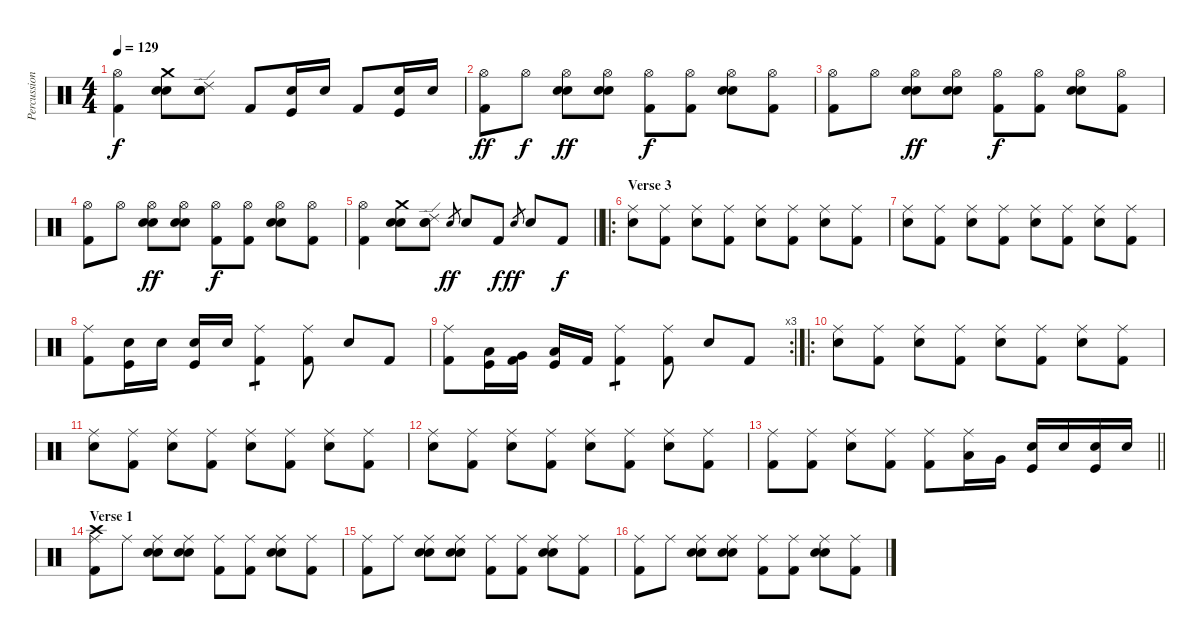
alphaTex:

\track ("Percussion" "Percussion") {instrument percussion}
\staff {score}
\articulation defaults
\ts (4 4)
\tempo 129
\clef neutral
\ks c
("Kick (hit) 2" "Hi-Hat (open)").4{dy f} ("Hand Clap (hit)" "Electric Snare (hit)" "Crash medium (hit)").8 ("Electric Snare (hit)" "Hand Clap (hit)" "Ride (edge) 2").8 "Kick (hit) 2".8 ("Electric Snare (hit)" "Kick (hit)").16 "Electric Snare (hit)".16 "Kick (hit) 2".8 ("Electric Snare (hit)" "Kick (hit)").16 "Electric Snare (hit)".16 |
("Kick (hit) 2" "Hi-Hat (open)").8{dy ff} "Hi-Hat (open)".8{dy f} ("Hand Clap (hit)" "Hi-Hat (open)" "Electric Snare (hit)").8{dy ff} ("Electric Snare (hit)" "Hi-Hat (open)" "Hand Clap (hit)").8 ("Kick (hit) 2" "Hi-Hat (open)").8{dy f} ("Kick (hit) 2" "Hi-Hat (open)").8 ("Electric Snare (hit)" "Hi-Hat (open)" "Hand Clap (hit)").8 ("Kick (hit) 2" "Hi-Hat (open)").8 |
("Kick (hit) 2" "Hi-Hat (open)").8 "Hi-Hat (open)".8 ("Hand Clap (hit)" "Hi-Hat (open)" "Electric Snare (hit)").8{dy ff} ("Electric Snare (hit)" "Hi-Hat (open)" "Hand Clap (hit)").8 ("Kick (hit) 2" "Hi-Hat (open)").8{dy f} ("Kick (hit) 2" "Hi-Hat (open)").8 ("Electric Snare (hit)" "Hi-Hat (open)" "Hand Clap (hit)").8 ("Kick (hit) 2" "Hi-Hat (open)").8 |
("Kick (hit) 2" "Hi-Hat (open)").8 "Hi-Hat (open)".8 ("Hand Clap (hit)" "Hi-Hat (open)" "Electric Snare (hit)").8{dy ff} ("Electric Snare (hit)" "Hi-Hat (open)" "Hand Clap (hit)").8 ("Kick (hit) 2" "Hi-Hat (open)").8{dy f} ("Kick (hit) 2" "Hi-Hat (open)").8 ("Electric Snare (hit)" "Hi-Hat (open)" "Hand Clap (hit)").8 ("Kick (hit) 2" "Hi-Hat (open)").8 |
\barLineRight lightlight
("Kick (hit) 2" "Hi-Hat (open)").4 ("Hand Clap (hit)" "Electric Snare (hit)" "Crash medium (hit)").8 ("Electric Snare (hit)" "Hand Clap (hit)" "Ride (edge) 2").8 "Electric Snare (hit)".8{gr dy ff} "Electric Snare (hit)".8 "Kick (hit) 2".8{dy f} "Electric Snare (hit)".8{gr dy ff} "Electric Snare (hit)".8 "Kick (hit) 2".8{dy f} |
\ro
\section ("" "Verse 3")
("Electric Snare (hit)" "Ride (middle)").8 ("Kick (hit) 2" "Ride (middle)").8 ("Electric Snare (hit)" "Ride (middle)").8 ("Kick (hit) 2" "Ride (middle)").8 ("Electric Snare (hit)" "Ride (middle)").8 ("Kick (hit) 2" "Ride (middle)").8 ("Electric Snare (hit)" "Ride (middle)").8 ("Kick (hit) 2" "Ride (middle)").8 |
("Electric Snare (hit)" "Ride (middle)").8 ("Kick (hit) 2" "Ride (middle)").8 ("Electric Snare (hit)" "Ride (middle)").8 ("Kick (hit) 2" "Ride (middle)").8 ("Electric Snare (hit)" "Ride (middle)").8 ("Kick (hit) 2" "Ride (middle)").8 ("Electric Snare (hit)" "Ride (middle)").8 ("Kick (hit) 2" "Ride (middle)").8 |
("Kick (hit) 2" "Ride (middle)").8 ("Kick (hit)" "Electric Snare (hit)").16 "Electric Snare (hit)".16 ("Kick (hit)" "Electric Snare (hit)").16 "Electric Snare (hit)".16 ("Kick (hit) 2" "Ride (middle)").4{tp 1} ("Kick (hit) 2" "Ride (middle)").8 "Electric Snare (hit)".8 "Kick (hit) 2".8 |
\rc 3
("Kick (hit) 2" "Ride (middle)").8 ("Kick (hit)" "Low Tom (hit)").16 ("Kick (hit) 2" "Very Low Tom (hit)").16 ("Kick (hit)" "Low Floor Tom (hit)").16 "Kick (hit) 2".16 ("Kick (hit) 2" "Ride (middle)").4{tp 1} ("Kick (hit) 2" "Ride (middle)").8 "Electric Snare (hit)".8 "Kick (hit) 2".8 |
\ro
("Electric Snare (hit)" "Ride (middle)").8 ("Kick (hit) 2" "Ride (middle)").8 ("Electric Snare (hit)" "Ride (middle)").8 ("Kick (hit) 2" "Ride (middle)").8 ("Electric Snare (hit)" "Ride (middle)").8 ("Kick (hit) 2" "Ride (middle)").8 ("Electric Snare (hit)" "Ride (middle)").8 ("Kick (hit) 2" "Ride (middle)").8 |
("Electric Snare (hit)" "Ride (middle)").8 ("Kick (hit) 2" "Ride (middle)").8 ("Electric Snare (hit)" "Ride (middle)").8 ("Kick (hit) 2" "Ride (middle)").8 ("Electric Snare (hit)" "Ride (middle)").8 ("Kick (hit) 2" "Ride (middle)").8 ("Electric Snare (hit)" "Ride (middle)").8 ("Kick (hit) 2" "Ride (middle)").8 |
("Electric Snare (hit)" "Ride (middle)").8 ("Kick (hit) 2" "Ride (middle)").8 ("Electric Snare (hit)" "Ride (middle)").8 ("Kick (hit) 2" "Ride (middle)").8 ("Electric Snare (hit)" "Ride (middle)").8 ("Kick (hit) 2" "Ride (middle)").8 ("Electric Snare (hit)" "Ride (middle)").8 ("Kick (hit) 2" "Ride (middle)").8 |
\barLineRight lightlight
("Ride (middle)" "Kick (hit) 2").8 ("Ride (middle)" "Kick (hit) 2").8 ("Ride (middle)" "Electric Snare (hit)").8 ("Kick (hit) 2" "Ride (middle)").8 ("Kick (hit) 2" "Ride (middle)").8 ("Low Tom (hit)" "Ride (middle)").16 "Very Low Tom (hit)".16 ("Kick (hit)" "Electric Snare (hit)").16 "Electric Snare (hit)".16 ("Kick (hit)" "Electric Snare (hit)").16 "Electric Snare (hit)".16 |
\section ("" "Verse 1")
("Kick (hit) 2" "Ride (middle)" "Crash high (hit)").8 "Ride (middle)".8 ("Hand Clap (hit)" "Electric Snare (hit)" "Ride (middle)").8 ("Electric Snare (hit)" "Hand Clap (hit)" "Ride (middle)").8 ("Kick (hit) 2" "Ride (middle)").8 ("Kick (hit) 2" "Ride (middle)").8 ("Electric Snare (hit)" "Ride (middle)" "Hand Clap (hit)").8 ("Kick (hit) 2" "Ride (middle)").8 |
("Kick (hit) 2" "Ride (middle)").8 "Ride (middle)".8 ("Hand Clap (hit)" "Electric Snare (hit)" "Ride (middle)").8 ("Electric Snare (hit)" "Hand Clap (hit)" "Ride (middle)").8 ("Kick (hit) 2" "Ride (middle)").8 ("Kick (hit) 2" "Ride (middle)").8 ("Electric Snare (hit)" "Ride (middle)" "Hand Clap (hit)").8 ("Kick (hit) 2" "Ride (middle)").8 |
("Kick (hit) 2" "Ride (middle)").8 "Ride (middle)".8 ("Hand Clap (hit)" "Electric Snare (hit)" "Ride (middle)").8 ("Electric Snare (hit)" "Hand Clap (hit)" "Ride (middle)").8 ("Kick (hit) 2" "Ride (middle)").8 ("Kick (hit) 2" "Ride (middle)").8 ("Electric Snare (hit)" "Ride (middle)" "Hand Clap (hit)").8 ("Kick (hit) 2" "Ride (middle)").8
